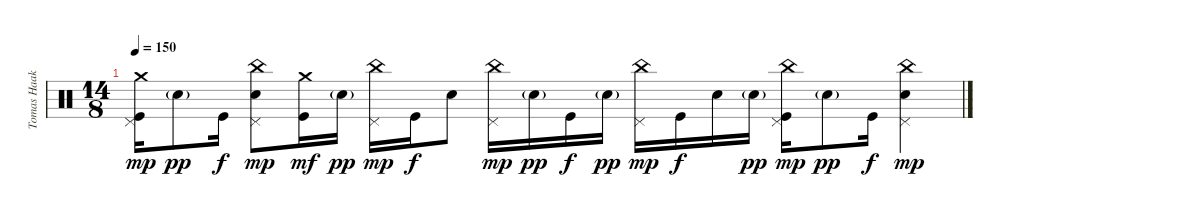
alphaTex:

\track ("Tomas Haake (Drums)" "Tomas Haak") {instrument percussion}
\staff {score}
\articulation defaults
\ts (14 8)
\tempo 150
\clef neutral
\ks c
("Crash medium (hit)" "Pedal Hi-Hat (hit)" "Kick (hit)").16{dy mp} "Electric Snare (hit)"{g}.8{dy pp} "Kick (hit)".16{dy f} ("China (hit)" "Pedal Hi-Hat (hit)" "Electric Snare (hit)").8{dy mp} ("Crash medium (hit)" "Kick (hit)").16{dy mf} "Electric Snare (hit)"{g}.16{dy pp} ("China (hit)" "Pedal Hi-Hat (hit)").16{dy mp} "Kick (hit)".16{dy f} "Electric Snare (hit)".8 ("China (hit)" "Pedal Hi-Hat (hit)").16{dy mp} "Electric Snare (hit)"{g}.16{dy pp} "Kick (hit)".16{dy f} "Electric Snare (hit)"{g}.16{dy pp} ("China (hit)" "Pedal Hi-Hat (hit)").16{dy mp} "Kick (hit)".16{dy f} "Electric Snare (hit)".16 "Electric Snare (hit)"{g}.16{dy pp} ("China (hit)" "Pedal Hi-Hat (hit)" "Kick (hit)").16{dy mp} "Electric Snare (hit)"{g}.8{dy pp} "Kick (hit)".16{dy f} ("China (hit)" "Pedal Hi-Hat (hit)" "Electric Snare (hit)").4{dy mp}
